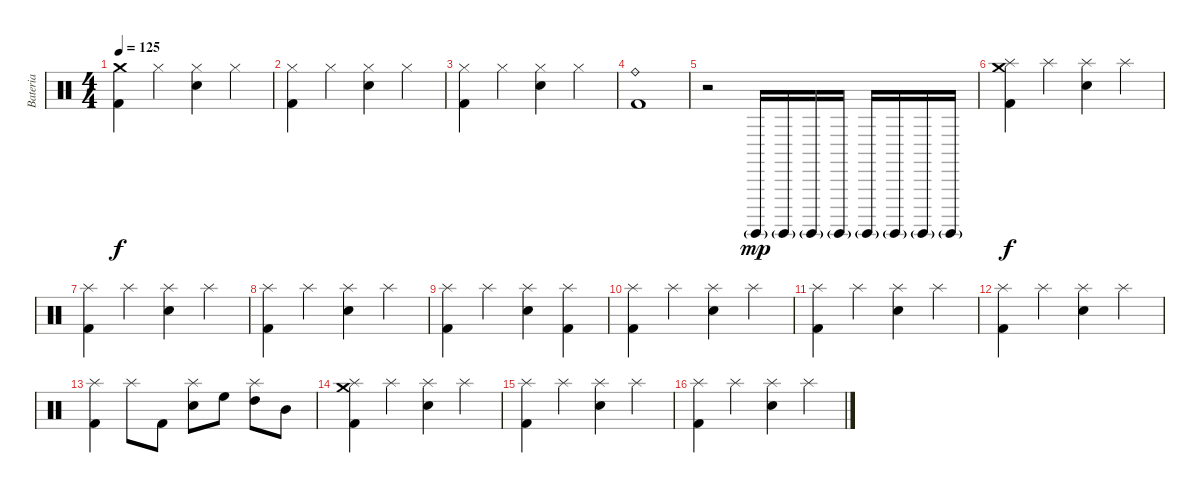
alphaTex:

\track ("Bateria" "Bateria") {instrument percussion}
\staff {score}
\articulation defaults
\ts (4 4)
\tempo 125
\clef neutral
\ks c
("Kick (hit) 2" "Crash medium (hit)").4{dy f} "Hi-Hat (closed)".4 ("Electric Snare (hit)" "Hi-Hat (closed)").4 "Hi-Hat (closed)".4 |
("Kick (hit) 2" "Hi-Hat (closed)").4 "Hi-Hat (closed)".4 ("Electric Snare (hit)" "Hi-Hat (closed)").4 "Hi-Hat (closed)".4 |
("Kick (hit) 2" "Hi-Hat (closed)").4 "Hi-Hat (closed)".4 ("Electric Snare (hit)" "Hi-Hat (closed)").4 "Hi-Hat (closed)".4 |
("Kick (hit) 2" "Ride (bell)").1 |
r.2 "Surdo (hit)"{g}.16{dy mp} "Surdo (hit)"{g}.16 "Surdo (hit)"{g}.16 "Surdo (hit)"{g}.16 "Surdo (hit)"{g}.16 "Surdo (hit)"{g}.16 "Surdo (hit)"{g}.16 "Surdo (hit)"{g}.16 |
("Kick (hit) 2" "Splash (hit)" "Crash medium (hit)").4{dy f} "Splash (hit)".4 ("Electric Snare (hit)" "Splash (hit)").4 "Splash (hit)".4 |
("Kick (hit) 2" "Splash (hit)").4 "Splash (hit)".4 ("Electric Snare (hit)" "Splash (hit)").4 "Splash (hit)".4 |
("Kick (hit) 2" "Splash (hit)").4 "Splash (hit)".4 ("Electric Snare (hit)" "Splash (hit)").4 "Splash (hit)".4 |
("Kick (hit) 2" "Splash (hit)").4 "Splash (hit)".4 ("Electric Snare (hit)" "Splash (hit)").4 ("Kick (hit) 2" "Splash (hit)").4 |
("Kick (hit) 2" "Splash (hit)").4 "Splash (hit)".4 ("Electric Snare (hit)" "Splash (hit)").4 "Splash (hit)".4 |
("Kick (hit) 2" "Splash (hit)").4 "Splash (hit)".4 ("Electric Snare (hit)" "Splash (hit)").4 "Splash (hit)".4 |
("Kick (hit) 2" "Splash (hit)").4 "Splash (hit)".4 ("Electric Snare (hit)" "Splash (hit)").4 "Splash (hit)".4 |
("Kick (hit) 2" "Splash (hit)").4 "Splash (hit)".8 "Kick (hit) 2".8 ("Electric Snare (hit)" "Splash (hit)").8 "High Floor Tom (hit)".8 ("High Tom (hit)" "Splash (hit)").8 "Mid Tom (hit)".8 |
("Kick (hit) 2" "Splash (hit)" "Crash medium (hit)").4 "Splash (hit)".4 ("Electric Snare (hit)" "Splash (hit)").4 "Splash (hit)".4 |
("Kick (hit) 2" "Splash (hit)").4 "Splash (hit)".4 ("Electric Snare (hit)" "Splash (hit)").4 "Splash (hit)".4 |
("Kick (hit) 2" "Splash (hit)").4 "Splash (hit)".4 ("Electric Snare (hit)" "Splash (hit)").4 "Splash (hit)".4
